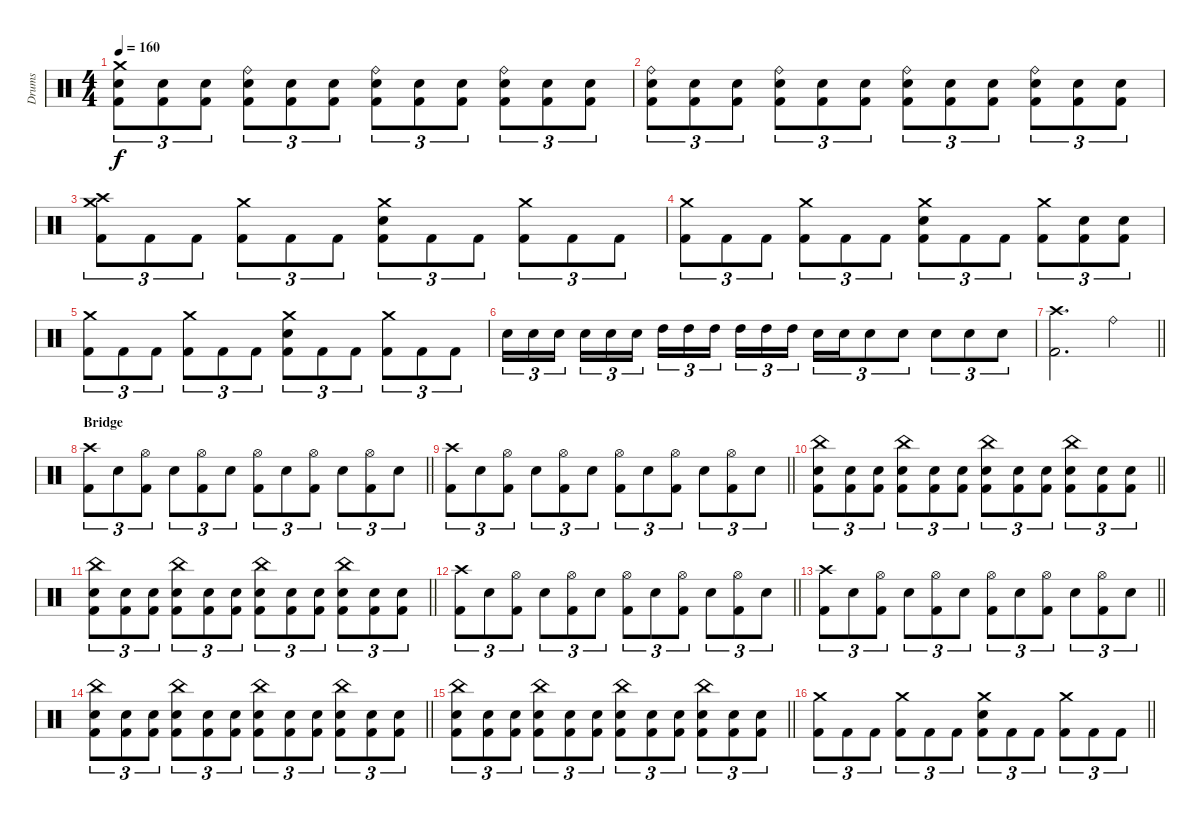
\track ("Drums" "Drums") {instrument percussion}
\staff {score}
\articulation defaults
\ts (4 4)
\tempo 160
\clef neutral
\ks c
("Crash medium (hit)" "Electric Snare (hit)" "Kick (hit) 2").8{tu (3 2) dy f} ("Electric Snare (hit)" "Kick (hit) 2").8{tu (3 2)} ("Electric Snare (hit)" "Kick (hit) 2").8{tu (3 2)} ("Ride (bell)" "Electric Snare (hit)" "Kick (hit) 2").8{tu (3 2)} ("Electric Snare (hit)" "Kick (hit) 2").8{tu (3 2)} ("Electric Snare (hit)" "Kick (hit) 2").8{tu (3 2)} ("Ride (bell)" "Electric Snare (hit)" "Kick (hit) 2").8{tu (3 2)} ("Electric Snare (hit)" "Kick (hit) 2").8{tu (3 2)} ("Electric Snare (hit)" "Kick (hit) 2").8{tu (3 2)} ("Ride (bell)" "Electric Snare (hit)" "Kick (hit) 2").8{tu (3 2)} ("Electric Snare (hit)" "Kick (hit) 2").8{tu (3 2)} ("Electric Snare (hit)" "Kick (hit) 2").8{tu (3 2)} |
("Ride (bell)" "Electric Snare (hit)" "Kick (hit) 2").8{tu (3 2)} ("Electric Snare (hit)" "Kick (hit) 2").8{tu (3 2)} ("Electric Snare (hit)" "Kick (hit) 2").8{tu (3 2)} ("Ride (bell)" "Electric Snare (hit)" "Kick (hit) 2").8{tu (3 2)} ("Electric Snare (hit)" "Kick (hit) 2").8{tu (3 2)} ("Electric Snare (hit)" "Kick (hit) 2").8{tu (3 2)} ("Ride (bell)" "Electric Snare (hit)" "Kick (hit) 2").8{tu (3 2)} ("Electric Snare (hit)" "Kick (hit) 2").8{tu (3 2)} ("Electric Snare (hit)" "Kick (hit) 2").8{tu (3 2)} ("Ride (bell)" "Electric Snare (hit)" "Kick (hit) 2").8{tu (3 2)} ("Electric Snare (hit)" "Kick (hit) 2").8{tu (3 2)} ("Electric Snare (hit)" "Kick (hit) 2").8{tu (3 2)} |
("Crash high (hit)" "Crash medium (hit)" "Kick (hit) 2").8{tu (3 2)} "Kick (hit) 2".8{tu (3 2)} "Kick (hit) 2".8{tu (3 2)} ("Crash medium (hit)" "Kick (hit) 2").8{tu (3 2)} "Kick (hit) 2".8{tu (3 2)} "Kick (hit) 2".8{tu (3 2)} ("Crash medium (hit)" "Electric Snare (hit)" "Kick (hit) 2").8{tu (3 2)} "Kick (hit) 2".8{tu (3 2)} "Kick (hit) 2".8{tu (3 2)} ("Crash medium (hit)" "Kick (hit) 2").8{tu (3 2)} "Kick (hit) 2".8{tu (3 2)} "Kick (hit) 2".8{tu (3 2)} |
("Crash medium (hit)" "Kick (hit) 2").8{tu (3 2)} "Kick (hit) 2".8{tu (3 2)} "Kick (hit) 2".8{tu (3 2)} ("Crash medium (hit)" "Kick (hit) 2").8{tu (3 2)} "Kick (hit) 2".8{tu (3 2)} "Kick (hit) 2".8{tu (3 2)} ("Crash medium (hit)" "Electric Snare (hit)" "Kick (hit) 2").8{tu (3 2)} "Kick (hit) 2".8{tu (3 2)} "Kick (hit) 2".8{tu (3 2)} ("Crash medium (hit)" "Kick (hit) 2").8{tu (3 2)} ("Electric Snare (hit)" "Kick (hit) 2").8{tu (3 2)} ("Electric Snare (hit)" "Kick (hit) 2").8{tu (3 2)} |
("Crash medium (hit)" "Kick (hit) 2").8{tu (3 2)} "Kick (hit) 2".8{tu (3 2)} "Kick (hit) 2".8{tu (3 2)} ("Crash medium (hit)" "Kick (hit) 2").8{tu (3 2)} "Kick (hit) 2".8{tu (3 2)} "Kick (hit) 2".8{tu (3 2)} ("Crash medium (hit)" "Electric Snare (hit)" "Kick (hit) 2").8{tu (3 2)} "Kick (hit) 2".8{tu (3 2)} "Kick (hit) 2".8{tu (3 2)} ("Crash medium (hit)" "Kick (hit) 2").8{tu (3 2)} "Kick (hit) 2".8{tu (3 2)} "Kick (hit) 2".8{tu (3 2)} |
"Electric Snare (hit)".16{tu (3 2)} "Electric Snare (hit)".16{tu (3 2)} "Electric Snare (hit)".16{tu (3 2) beam splitsecondary} "Electric Snare (hit)".16{tu (3 2)} "Electric Snare (hit)".16{tu (3 2)} "Electric Snare (hit)".16{tu (3 2)} "High Tom (hit)".16{tu (3 2)} "High Tom (hit)".16{tu (3 2)} "High Tom (hit)".16{tu (3 2) beam splitsecondary} "High Tom (hit)".16{tu (3 2)} "High Tom (hit)".16{tu (3 2)} "High Tom (hit)".16{tu (3 2)} "Electric Snare (hit)".16{tu (3 2)} "Electric Snare (hit)".16{tu (3 2)} "Electric Snare (hit)".8{tu (3 2)} "Electric Snare (hit)".8{tu (3 2)} "Electric Snare (hit)".8{tu (3 2)} "Electric Snare (hit)".8{tu (3 2)} "Electric Snare (hit)".8{tu (3 2)} |
\barLineRight lightlight
("Crash high (hit)" "Kick (hit) 2").2{d} "Ride (bell)".4 |
\section ("" "Bridge")
\barLineRight lightlight
("Crash high (hit)" "Kick (hit) 2").8{tu (3 2)} "Electric Snare (hit)".8{tu (3 2)} ("Hi-Hat (open)" "Kick (hit) 2").8{tu (3 2)} "Electric Snare (hit)".8{tu (3 2)} ("Hi-Hat (open)" "Kick (hit) 2").8{tu (3 2)} "Electric Snare (hit)".8{tu (3 2)} ("Hi-Hat (open)" "Kick (hit) 2").8{tu (3 2)} "Electric Snare (hit)".8{tu (3 2)} ("Hi-Hat (open)" "Kick (hit) 2").8{tu (3 2)} "Electric Snare (hit)".8{tu (3 2)} ("Hi-Hat (open)" "Kick (hit) 2").8{tu (3 2)} "Electric Snare (hit)".8{tu (3 2)} |
\barLineRight lightlight
("Crash high (hit)" "Kick (hit) 2").8{tu (3 2)} "Electric Snare (hit)".8{tu (3 2)} ("Hi-Hat (open)" "Kick (hit) 2").8{tu (3 2)} "Electric Snare (hit)".8{tu (3 2)} ("Hi-Hat (open)" "Kick (hit) 2").8{tu (3 2)} "Electric Snare (hit)".8{tu (3 2)} ("Hi-Hat (open)" "Kick (hit) 2").8{tu (3 2)} "Electric Snare (hit)".8{tu (3 2)} ("Hi-Hat (open)" "Kick (hit) 2").8{tu (3 2)} "Electric Snare (hit)".8{tu (3 2)} ("Hi-Hat (open)" "Kick (hit) 2").8{tu (3 2)} "Electric Snare (hit)".8{tu (3 2)} |
\barLineRight lightlight
("China (hit)" "Electric Snare (hit)" "Kick (hit) 2").8{tu (3 2)} ("Electric Snare (hit)" "Kick (hit) 2").8{tu (3 2)} ("Electric Snare (hit)" "Kick (hit) 2").8{tu (3 2)} ("China (hit)" "Electric Snare (hit)" "Kick (hit) 2").8{tu (3 2)} ("Electric Snare (hit)" "Kick (hit) 2").8{tu (3 2)} ("Electric Snare (hit)" "Kick (hit) 2").8{tu (3 2)} ("China (hit)" "Electric Snare (hit)" "Kick (hit) 2").8{tu (3 2)} ("Electric Snare (hit)" "Kick (hit) 2").8{tu (3 2)} ("Electric Snare (hit)" "Kick (hit) 2").8{tu (3 2)} ("China (hit)" "Electric Snare (hit)" "Kick (hit) 2").8{tu (3 2)} ("Electric Snare (hit)" "Kick (hit) 2").8{tu (3 2)} ("Electric Snare (hit)" "Kick (hit) 2").8{tu (3 2)} |
\barLineRight lightlight
("China (hit)" "Electric Snare (hit)" "Kick (hit) 2").8{tu (3 2)} ("Electric Snare (hit)" "Kick (hit) 2").8{tu (3 2)} ("Electric Snare (hit)" "Kick (hit) 2").8{tu (3 2)} ("China (hit)" "Electric Snare (hit)" "Kick (hit) 2").8{tu (3 2)} ("Electric Snare (hit)" "Kick (hit) 2").8{tu (3 2)} ("Electric Snare (hit)" "Kick (hit) 2").8{tu (3 2)} ("China (hit)" "Electric Snare (hit)" "Kick (hit) 2").8{tu (3 2)} ("Electric Snare (hit)" "Kick (hit) 2").8{tu (3 2)} ("Electric Snare (hit)" "Kick (hit) 2").8{tu (3 2)} ("China (hit)" "Electric Snare (hit)" "Kick (hit) 2").8{tu (3 2)} ("Electric Snare (hit)" "Kick (hit) 2").8{tu (3 2)} ("Electric Snare (hit)" "Kick (hit) 2").8{tu (3 2)} |
\barLineRight lightlight
("Crash high (hit)" "Kick (hit) 2").8{tu (3 2)} "Electric Snare (hit)".8{tu (3 2)} ("Hi-Hat (open)" "Kick (hit) 2").8{tu (3 2)} "Electric Snare (hit)".8{tu (3 2)} ("Hi-Hat (open)" "Kick (hit) 2").8{tu (3 2)} "Electric Snare (hit)".8{tu (3 2)} ("Hi-Hat (open)" "Kick (hit) 2").8{tu (3 2)} "Electric Snare (hit)".8{tu (3 2)} ("Hi-Hat (open)" "Kick (hit) 2").8{tu (3 2)} "Electric Snare (hit)".8{tu (3 2)} ("Hi-Hat (open)" "Kick (hit) 2").8{tu (3 2)} "Electric Snare (hit)".8{tu (3 2)} |
\barLineRight lightlight
("Crash high (hit)" "Kick (hit) 2").8{tu (3 2)} "Electric Snare (hit)".8{tu (3 2)} ("Hi-Hat (open)" "Kick (hit) 2").8{tu (3 2)} "Electric Snare (hit)".8{tu (3 2)} ("Hi-Hat (open)" "Kick (hit) 2").8{tu (3 2)} "Electric Snare (hit)".8{tu (3 2)} ("Hi-Hat (open)" "Kick (hit) 2").8{tu (3 2)} "Electric Snare (hit)".8{tu (3 2)} ("Hi-Hat (open)" "Kick (hit) 2").8{tu (3 2)} "Electric Snare (hit)".8{tu (3 2)} ("Hi-Hat (open)" "Kick (hit) 2").8{tu (3 2)} "Electric Snare (hit)".8{tu (3 2)} |
\barLineRight lightlight
("China (hit)" "Electric Snare (hit)" "Kick (hit) 2").8{tu (3 2)} ("Electric Snare (hit)" "Kick (hit) 2").8{tu (3 2)} ("Electric Snare (hit)" "Kick (hit) 2").8{tu (3 2)} ("China (hit)" "Electric Snare (hit)" "Kick (hit) 2").8{tu (3 2)} ("Electric Snare (hit)" "Kick (hit) 2").8{tu (3 2)} ("Electric Snare (hit)" "Kick (hit) 2").8{tu (3 2)} ("China (hit)" "Electric Snare (hit)" "Kick (hit) 2").8{tu (3 2)} ("Electric Snare (hit)" "Kick (hit) 2").8{tu (3 2)} ("Electric Snare (hit)" "Kick (hit) 2").8{tu (3 2)} ("China (hit)" "Electric Snare (hit)" "Kick (hit) 2").8{tu (3 2)} ("Electric Snare (hit)" "Kick (hit) 2").8{tu (3 2)} ("Electric Snare (hit)" "Kick (hit) 2").8{tu (3 2)} |
\barLineRight lightlight
("China (hit)" "Electric Snare (hit)" "Kick (hit) 2").8{tu (3 2)} ("Electric Snare (hit)" "Kick (hit) 2").8{tu (3 2)} ("Electric Snare (hit)" "Kick (hit) 2").8{tu (3 2)} ("China (hit)" "Electric Snare (hit)" "Kick (hit) 2").8{tu (3 2)} ("Electric Snare (hit)" "Kick (hit) 2").8{tu (3 2)} ("Electric Snare (hit)" "Kick (hit) 2").8{tu (3 2)} ("China (hit)" "Electric Snare (hit)" "Kick (hit) 2").8{tu (3 2)} ("Electric Snare (hit)" "Kick (hit) 2").8{tu (3 2)} ("Electric Snare (hit)" "Kick (hit) 2").8{tu (3 2)} ("China (hit)" "Electric Snare (hit)" "Kick (hit) 2").8{tu (3 2)} ("Electric Snare (hit)" "Kick (hit) 2").8{tu (3 2)} ("Electric Snare (hit)" "Kick (hit) 2").8{tu (3 2)} |
\barLineRight lightlight
("Crash medium (hit)" "Kick (hit) 2").8{tu (3 2)} "Kick (hit) 2".8{tu (3 2)} "Kick (hit) 2".8{tu (3 2)} ("Crash medium (hit)" "Kick (hit) 2").8{tu (3 2)} "Kick (hit) 2".8{tu (3 2)} "Kick (hit) 2".8{tu (3 2)} ("Crash medium (hit)" "Electric Snare (hit)" "Kick (hit) 2").8{tu (3 2)} "Kick (hit) 2".8{tu (3 2)} "Kick (hit) 2".8{tu (3 2)} ("Crash medium (hit)" "Kick (hit) 2").8{tu (3 2)} "Kick (hit) 2".8{tu (3 2)} "Kick (hit) 2".8{tu (3 2)}
